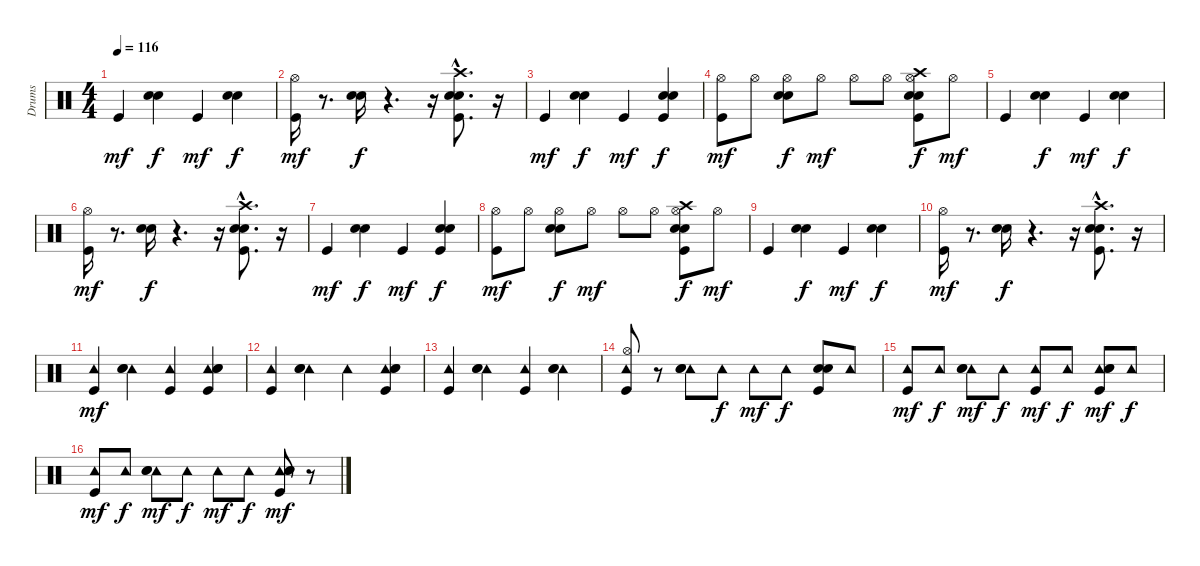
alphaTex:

\track ("Drums" "Drums") {instrument percussion}
\staff {score}
\articulation defaults
\ts (4 4)
\tempo 116
\clef neutral
\ks c "Kick (hit)".4{dy mf}
("Electric Snare (hit)" "Snare (hit) 2").4{dy f} "Kick (hit)".4{dy mf} ("Electric Snare (hit)" "Snare (hit) 2").4{dy f} |
("Hi-Hat (open)" "Kick (hit)").16{dy mf} r.8{d} ("Electric Snare (hit)" "Snare (hit) 2").16{dy f} r.4{d} r.16 ("Crash high (hit)"{hac} "Electric Snare (hit)" "Snare (hit) 2" "Kick (hit)").8{d} r.16 |
"Kick (hit)".4{dy mf} ("Electric Snare (hit)" "Snare (hit) 2").4{dy f} "Kick (hit)".4{dy mf} ("Electric Snare (hit)" "Snare (hit) 2" "Kick (hit)").4{dy f} |
("Hi-Hat (open)" "Kick (hit)").8{dy mf} "Hi-Hat (open)".8 ("Hi-Hat (open)" "Electric Snare (hit)" "Snare (hit) 2").8{dy f} "Hi-Hat (open)".8{dy mf} "Hi-Hat (open)".8 "Hi-Hat (open)".8 ("Hi-Hat (open)" "Crash high (hit)" "Electric Snare (hit)" "Snare (hit) 2" "Kick (hit)").8{dy f} "Hi-Hat (open)".8{dy mf} |
"Kick (hit)".4 ("Electric Snare (hit)" "Snare (hit) 2").4{dy f} "Kick (hit)".4{dy mf} ("Electric Snare (hit)" "Snare (hit) 2").4{dy f} |
("Hi-Hat (open)" "Kick (hit)").16{dy mf} r.8{d} ("Electric Snare (hit)" "Snare (hit) 2").16{dy f} r.4{d} r.16 ("Crash high (hit)"{hac} "Electric Snare (hit)" "Snare (hit) 2" "Kick (hit)").8{d} r.16 |
"Kick (hit)".4{dy mf} ("Electric Snare (hit)" "Snare (hit) 2").4{dy f} "Kick (hit)".4{dy mf} ("Electric Snare (hit)" "Snare (hit) 2" "Kick (hit)").4{dy f} |
("Hi-Hat (open)" "Kick (hit)").8{dy mf} "Hi-Hat (open)".8 ("Hi-Hat (open)" "Electric Snare (hit)" "Snare (hit) 2").8{dy f} "Hi-Hat (open)".8{dy mf} "Hi-Hat (open)".8 "Hi-Hat (open)".8 ("Hi-Hat (open)" "Crash high (hit)" "Electric Snare (hit)" "Snare (hit) 2" "Kick (hit)").8{dy f} "Hi-Hat (open)".8{dy mf} |
"Kick (hit)".4 ("Electric Snare (hit)" "Snare (hit) 2").4{dy f} "Kick (hit)".4{dy mf} ("Electric Snare (hit)" "Snare (hit) 2").4{dy f} |
("Hi-Hat (open)" "Kick (hit)").16{dy mf} r.8{d} ("Electric Snare (hit)" "Snare (hit) 2").16{dy f} r.4{d} r.16 ("Crash high (hit)"{hac} "Electric Snare (hit)" "Snare (hit) 2" "Kick (hit)").8{d} r.16 |
("Tambourine (hit)" "Kick (hit)").4{dy mf} ("Tambourine (hit)" "Electric Snare (hit)" "Snare (hit) 2").4 ("Tambourine (hit)" "Kick (hit)").4 ("Tambourine (hit)" "Electric Snare (hit)" "Snare (hit) 2" "Kick (hit)").4 |
("Tambourine (hit)" "Kick (hit)").4 ("Tambourine (hit)" "Electric Snare (hit)" "Snare (hit) 2").4 "Tambourine (hit)".4 ("Tambourine (hit)" "Electric Snare (hit)" "Snare (hit) 2" "Kick (hit)").4 |
("Tambourine (hit)" "Kick (hit)").4 ("Tambourine (hit)" "Electric Snare (hit)" "Snare (hit) 2").4 ("Tambourine (hit)" "Kick (hit)").4 ("Tambourine (hit)" "Electric Snare (hit)" "Snare (hit) 2").4 |
("Tambourine (hit)" "Hi-Hat (open)" "Kick (hit)").8 r.8 ("Tambourine (hit)" "Electric Snare (hit)" "Snare (hit) 2").8 "Tambourine (hit)".8{dy f} "Tambourine (hit)".8{dy mf} "Tambourine (hit)".8{dy f} ("Electric Snare (hit)" "Snare (hit) 2" "Kick (hit)").8 "Tambourine (hit)".8 |
("Tambourine (hit)" "Kick (hit)").8{dy mf} "Tambourine (hit)".8{dy f} ("Tambourine (hit)" "Electric Snare (hit)" "Snare (hit) 2").8{dy mf} "Tambourine (hit)".8{dy f} ("Tambourine (hit)" "Kick (hit)").8{dy mf} "Tambourine (hit)".8{dy f} ("Tambourine (hit)" "Electric Snare (hit)" "Snare (hit) 2" "Kick (hit)").8{dy mf} "Tambourine (hit)".8{dy f} |
("Tambourine (hit)" "Kick (hit)").8{dy mf} "Tambourine (hit)".8{dy f} ("Tambourine (hit)" "Electric Snare (hit)" "Snare (hit) 2").8{dy mf} "Tambourine (hit)".8{dy f} "Tambourine (hit)".8{dy mf} "Tambourine (hit)".8{dy f} ("Tambourine (hit)" "Electric Snare (hit)" "Snare (hit) 2" "Kick (hit)").8{dy mf} r.8
